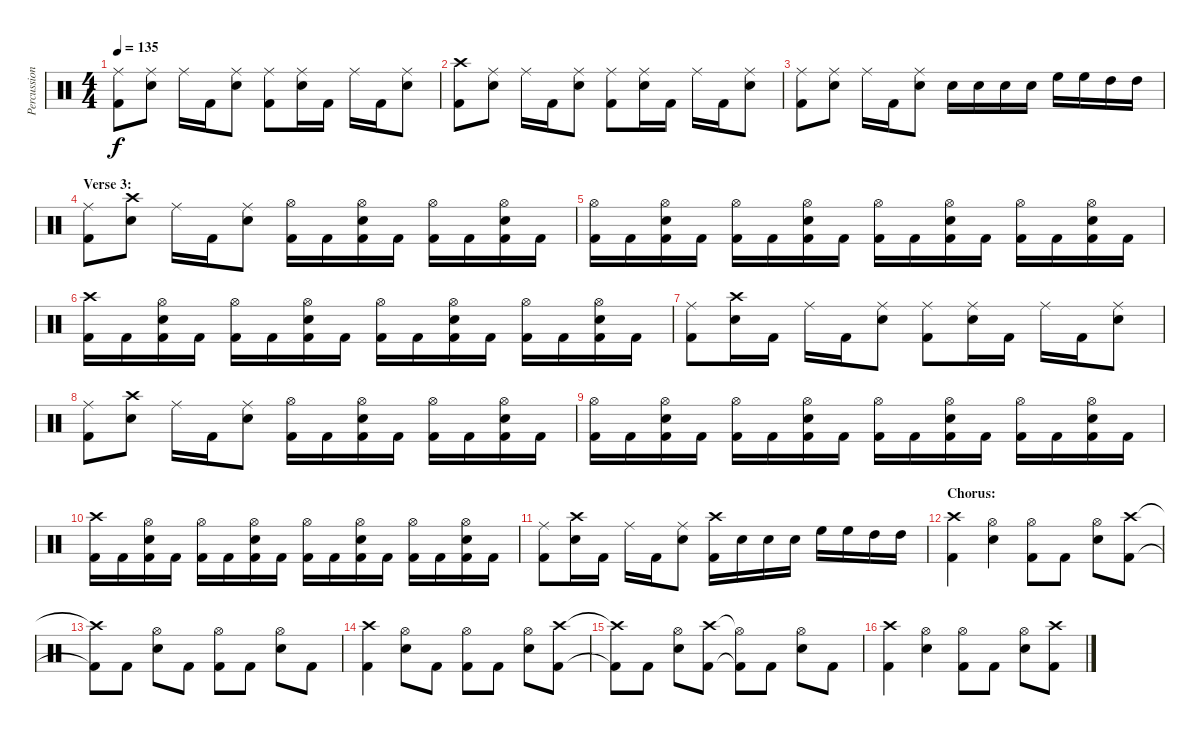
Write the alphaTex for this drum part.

\track ("Percussion" "Percussion") {instrument percussion}
\staff {score}
\articulation defaults
\ts (4 4)
\tempo 135
\clef neutral
\ks c
("Ride (middle)" "Kick (hit) 2").8{dy f} ("Ride (middle)" "Electric Snare (hit)").8 "Ride (middle)".16 "Kick (hit) 2".16 ("Ride (middle)" "Electric Snare (hit)").8 ("Ride (middle)" "Kick (hit) 2").8 ("Ride (middle)" "Electric Snare (hit)").16 "Kick (hit) 2".16 "Ride (middle)".16 "Kick (hit) 2".16 ("Ride (middle)" "Electric Snare (hit)").8 |
("Crash high (hit)" "Kick (hit) 2").8 ("Ride (middle)" "Electric Snare (hit)").8 "Ride (middle)".16 "Kick (hit) 2".16 ("Ride (middle)" "Electric Snare (hit)").8 ("Ride (middle)" "Kick (hit) 2").8 ("Ride (middle)" "Electric Snare (hit)").16 "Kick (hit) 2".16 "Ride (middle)".16 "Kick (hit) 2".16 ("Ride (middle)" "Electric Snare (hit)").8 |
("Ride (middle)" "Kick (hit) 2").8 ("Ride (middle)" "Electric Snare (hit)").8 "Ride (middle)".16 "Kick (hit) 2".16 ("Ride (middle)" "Electric Snare (hit)").8 "Electric Snare (hit)".16 "Electric Snare (hit)".16 "Electric Snare (hit)".16 "Electric Snare (hit)".16 "High Floor Tom (hit)".16 "High Floor Tom (hit)".16 "High Tom (hit)".16 "High Tom (hit)".16 |
\section ("" "Verse 3:")
("Ride (middle)" "Kick (hit) 2").8 ("Crash high (hit)" "Electric Snare (hit)").8 "Ride (middle)".16 "Kick (hit) 2".16 ("Ride (middle)" "Electric Snare (hit)").8 ("Hi-Hat (open)" "Kick (hit) 2").16 "Kick (hit) 2".16 ("Hi-Hat (open)" "Electric Snare (hit)" "Kick (hit) 2").16 "Kick (hit) 2".16 ("Hi-Hat (open)" "Kick (hit) 2").16 "Kick (hit) 2".16 ("Hi-Hat (open)" "Electric Snare (hit)" "Kick (hit) 2").16 "Kick (hit) 2".16 |
("Hi-Hat (open)" "Kick (hit) 2").16 "Kick (hit) 2".16 ("Hi-Hat (open)" "Electric Snare (hit)" "Kick (hit) 2").16 "Kick (hit) 2".16 ("Hi-Hat (open)" "Kick (hit) 2").16 "Kick (hit) 2".16 ("Hi-Hat (open)" "Electric Snare (hit)" "Kick (hit) 2").16 "Kick (hit) 2".16 ("Hi-Hat (open)" "Kick (hit) 2").16 "Kick (hit) 2".16 ("Hi-Hat (open)" "Electric Snare (hit)" "Kick (hit) 2").16 "Kick (hit) 2".16 ("Hi-Hat (open)" "Kick (hit) 2").16 "Kick (hit) 2".16 ("Hi-Hat (open)" "Electric Snare (hit)" "Kick (hit) 2").16 "Kick (hit) 2".16 |
("Crash high (hit)" "Kick (hit) 2").16 "Kick (hit) 2".16 ("Hi-Hat (open)" "Electric Snare (hit)" "Kick (hit) 2").16 "Kick (hit) 2".16 ("Hi-Hat (open)" "Kick (hit) 2").16 "Kick (hit) 2".16 ("Hi-Hat (open)" "Electric Snare (hit)" "Kick (hit) 2").16 "Kick (hit) 2".16 ("Hi-Hat (open)" "Kick (hit) 2").16 "Kick (hit) 2".16 ("Hi-Hat (open)" "Electric Snare (hit)" "Kick (hit) 2").16 "Kick (hit) 2".16 ("Hi-Hat (open)" "Kick (hit) 2").16 "Kick (hit) 2".16 ("Hi-Hat (open)" "Electric Snare (hit)" "Kick (hit) 2").16 "Kick (hit) 2".16 |
("Ride (middle)" "Kick (hit) 2").8 ("Crash high (hit)" "Electric Snare (hit)").16 "Kick (hit) 2".16 "Ride (middle)".16 "Kick (hit) 2".16 ("Ride (middle)" "Electric Snare (hit)").8 ("Ride (middle)" "Kick (hit) 2").8 ("Ride (middle)" "Electric Snare (hit)").16 "Kick (hit) 2".16 "Ride (middle)".16 "Kick (hit) 2".16 ("Ride (middle)" "Electric Snare (hit)").8 |
("Ride (middle)" "Kick (hit) 2").8 ("Crash high (hit)" "Electric Snare (hit)").8 "Ride (middle)".16 "Kick (hit) 2".16 ("Ride (middle)" "Electric Snare (hit)").8 ("Hi-Hat (open)" "Kick (hit) 2").16 "Kick (hit) 2".16 ("Hi-Hat (open)" "Electric Snare (hit)" "Kick (hit) 2").16 "Kick (hit) 2".16 ("Hi-Hat (open)" "Kick (hit) 2").16 "Kick (hit) 2".16 ("Hi-Hat (open)" "Electric Snare (hit)" "Kick (hit) 2").16 "Kick (hit) 2".16 |
("Hi-Hat (open)" "Kick (hit) 2").16 "Kick (hit) 2".16 ("Hi-Hat (open)" "Electric Snare (hit)" "Kick (hit) 2").16 "Kick (hit) 2".16 ("Hi-Hat (open)" "Kick (hit) 2").16 "Kick (hit) 2".16 ("Hi-Hat (open)" "Electric Snare (hit)" "Kick (hit) 2").16 "Kick (hit) 2".16 ("Hi-Hat (open)" "Kick (hit) 2").16 "Kick (hit) 2".16 ("Hi-Hat (open)" "Electric Snare (hit)" "Kick (hit) 2").16 "Kick (hit) 2".16 ("Hi-Hat (open)" "Kick (hit) 2").16 "Kick (hit) 2".16 ("Hi-Hat (open)" "Electric Snare (hit)" "Kick (hit) 2").16 "Kick (hit) 2".16 |
("Crash high (hit)" "Kick (hit) 2").16 "Kick (hit) 2".16 ("Hi-Hat (open)" "Electric Snare (hit)" "Kick (hit) 2").16 "Kick (hit) 2".16 ("Hi-Hat (open)" "Kick (hit) 2").16 "Kick (hit) 2".16 ("Hi-Hat (open)" "Electric Snare (hit)" "Kick (hit) 2").16 "Kick (hit) 2".16 ("Hi-Hat (open)" "Kick (hit) 2").16 "Kick (hit) 2".16 ("Hi-Hat (open)" "Electric Snare (hit)" "Kick (hit) 2").16 "Kick (hit) 2".16 ("Hi-Hat (open)" "Kick (hit) 2").16 "Kick (hit) 2".16 ("Hi-Hat (open)" "Electric Snare (hit)" "Kick (hit) 2").16 "Kick (hit) 2".16 |
("Ride (middle)" "Kick (hit) 2").8 ("Crash high (hit)" "Electric Snare (hit)").16 "Kick (hit) 2".16 "Ride (middle)".16 "Kick (hit) 2".16 ("Ride (middle)" "Electric Snare (hit)").8 ("Crash high (hit)" "Kick (hit) 2").16 "Electric Snare (hit)".16 "Electric Snare (hit)".16 "Electric Snare (hit)".16 "High Floor Tom (hit)".16 "High Floor Tom (hit)".16 "High Tom (hit)".16 "High Tom (hit)".16 |
\section ("" "Chorus:")
("Crash high (hit)" "Kick (hit) 2").4 ("Hi-Hat (open)" "Electric Snare (hit)").4 ("Hi-Hat (open)" "Kick (hit) 2").8 "Kick (hit) 2".8 ("Hi-Hat (open)" "Electric Snare (hit)").8 ("Crash high (hit)" "Kick (hit) 2").8 |
("Crash high (hit)"{t} "Kick (hit) 2"{t}).8 "Kick (hit) 2".8 ("Hi-Hat (open)" "Electric Snare (hit)").8 "Kick (hit) 2".8 ("Hi-Hat (open)" "Kick (hit) 2").8 "Kick (hit) 2".8 ("Hi-Hat (open)" "Electric Snare (hit)").8 "Kick (hit) 2".8 |
("Crash high (hit)" "Kick (hit) 2").4 ("Hi-Hat (open)" "Electric Snare (hit)").8 "Kick (hit) 2".8 ("Hi-Hat (open)" "Kick (hit) 2").8 "Kick (hit) 2".8 ("Hi-Hat (open)" "Electric Snare (hit)").8 ("Crash high (hit)" "Kick (hit) 2").8 |
("Crash high (hit)"{t} "Kick (hit) 2"{t}).8 "Kick (hit) 2".8 ("Hi-Hat (open)" "Electric Snare (hit)").8 ("Crash high (hit)" "Kick (hit) 2").8 ("Hi-Hat (open)"{t} "Kick (hit) 2"{t}).8 "Kick (hit) 2".8 ("Hi-Hat (open)" "Electric Snare (hit)").8 "Kick (hit) 2".8 |
("Crash high (hit)" "Kick (hit) 2").4 ("Hi-Hat (open)" "Electric Snare (hit)").4 ("Hi-Hat (open)" "Kick (hit) 2").8 "Kick (hit) 2".8 ("Hi-Hat (open)" "Electric Snare (hit)").8 ("Crash high (hit)" "Kick (hit) 2").8
